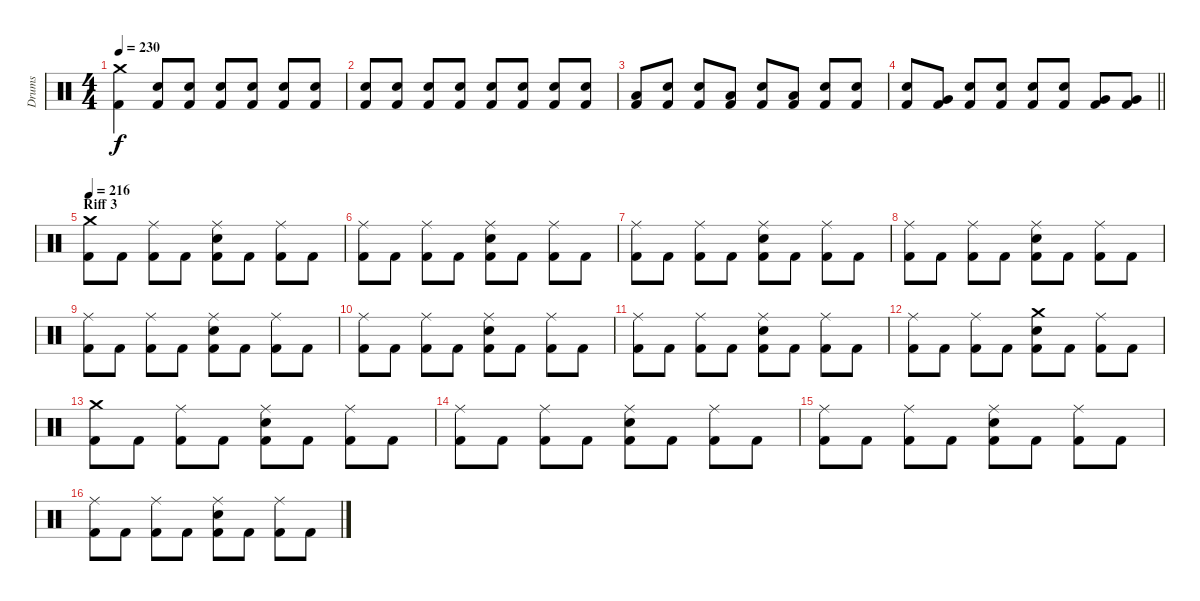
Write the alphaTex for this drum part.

\track ("Drums" "Drums") {instrument percussion}
\staff {score}
\articulation defaults
\ts (4 4)
\tempo 230
\clef neutral
\ks c
("Crash medium (hit)" "Kick (hit) 2").4{dy f} ("Electric Snare (hit)" "Kick (hit) 2").8 ("Electric Snare (hit)" "Kick (hit) 2").8 ("Electric Snare (hit)" "Kick (hit) 2").8 ("Electric Snare (hit)" "Kick (hit) 2").8 ("Electric Snare (hit)" "Kick (hit) 2").8 ("Electric Snare (hit)" "Kick (hit) 2").8 |
("Electric Snare (hit)" "Kick (hit) 2").8 ("Electric Snare (hit)" "Kick (hit) 2").8 ("Electric Snare (hit)" "Kick (hit) 2").8 ("Electric Snare (hit)" "Kick (hit) 2").8 ("Electric Snare (hit)" "Kick (hit) 2").8 ("Electric Snare (hit)" "Kick (hit) 2").8 ("Electric Snare (hit)" "Kick (hit) 2").8 ("Electric Snare (hit)" "Kick (hit) 2").8 |
("Kick (hit) 2" "Low Tom (hit)").8 ("Kick (hit) 2" "Electric Snare (hit)").8 ("Kick (hit) 2" "Electric Snare (hit)").8 ("Kick (hit) 2" "Low Tom (hit)").8 ("Kick (hit) 2" "Electric Snare (hit)").8 ("Kick (hit) 2" "Low Tom (hit)").8 ("Kick (hit) 2" "Electric Snare (hit)").8 ("Kick (hit) 2" "Electric Snare (hit)").8 |
\barLineRight lightlight
("Electric Snare (hit)" "Kick (hit) 2").8 ("Very Low Tom (hit)" "Kick (hit) 2").8 ("Electric Snare (hit)" "Kick (hit) 2").8 ("Electric Snare (hit)" "Kick (hit) 2").8 ("Electric Snare (hit)" "Kick (hit) 2").8 ("Electric Snare (hit)" "Kick (hit) 2").8 ("Very Low Tom (hit)" "Kick (hit) 2").8 ("Very Low Tom (hit)" "Kick (hit) 2").8 |
\section ("" "Riff 3")
\tempo 216
("Kick (hit) 2" "Crash medium (hit)").8 "Kick (hit) 2".8 ("Kick (hit) 2" "Ride (middle)").8 "Kick (hit) 2".8 ("Kick (hit) 2" "Electric Snare (hit)" "Ride (middle)").8 "Kick (hit) 2".8 ("Kick (hit) 2" "Ride (middle)").8 "Kick (hit) 2".8 |
("Kick (hit) 2" "Ride (middle)").8 "Kick (hit) 2".8 ("Kick (hit) 2" "Ride (middle)").8 "Kick (hit) 2".8 ("Kick (hit) 2" "Electric Snare (hit)" "Ride (middle)").8 "Kick (hit) 2".8 ("Kick (hit) 2" "Ride (middle)").8 "Kick (hit) 2".8 |
("Kick (hit) 2" "Ride (middle)").8 "Kick (hit) 2".8 ("Kick (hit) 2" "Ride (middle)").8 "Kick (hit) 2".8 ("Kick (hit) 2" "Electric Snare (hit)" "Ride (middle)").8 "Kick (hit) 2".8 ("Kick (hit) 2" "Ride (middle)").8 "Kick (hit) 2".8 |
("Kick (hit) 2" "Ride (middle)").8 "Kick (hit) 2".8 ("Kick (hit) 2" "Ride (middle)").8 "Kick (hit) 2".8 ("Kick (hit) 2" "Electric Snare (hit)" "Ride (middle)").8 "Kick (hit) 2".8 ("Kick (hit) 2" "Ride (middle)").8 "Kick (hit) 2".8 |
("Kick (hit) 2" "Ride (middle)").8 "Kick (hit) 2".8 ("Kick (hit) 2" "Ride (middle)").8 "Kick (hit) 2".8 ("Kick (hit) 2" "Electric Snare (hit)" "Ride (middle)").8 "Kick (hit) 2".8 ("Kick (hit) 2" "Ride (middle)").8 "Kick (hit) 2".8 |
("Kick (hit) 2" "Ride (middle)").8 "Kick (hit) 2".8 ("Kick (hit) 2" "Ride (middle)").8 "Kick (hit) 2".8 ("Kick (hit) 2" "Electric Snare (hit)" "Ride (middle)").8 "Kick (hit) 2".8 ("Kick (hit) 2" "Ride (middle)").8 "Kick (hit) 2".8 |
("Kick (hit) 2" "Ride (middle)").8 "Kick (hit) 2".8 ("Kick (hit) 2" "Ride (middle)").8 "Kick (hit) 2".8 ("Kick (hit) 2" "Electric Snare (hit)" "Ride (middle)").8 "Kick (hit) 2".8 ("Kick (hit) 2" "Ride (middle)").8 "Kick (hit) 2".8 |
("Kick (hit) 2" "Ride (middle)").8 "Kick (hit) 2".8 ("Kick (hit) 2" "Ride (middle)").8 "Kick (hit) 2".8 ("Kick (hit) 2" "Electric Snare (hit)" "Crash medium (hit)").8 "Kick (hit) 2".8 ("Kick (hit) 2" "Ride (middle)").8 "Kick (hit) 2".8 |
("Kick (hit) 2" "Crash medium (hit)").8 "Kick (hit) 2".8 ("Kick (hit) 2" "Ride (middle)").8 "Kick (hit) 2".8 ("Kick (hit) 2" "Electric Snare (hit)" "Ride (middle)").8 "Kick (hit) 2".8 ("Kick (hit) 2" "Ride (middle)").8 "Kick (hit) 2".8 |
("Kick (hit) 2" "Ride (middle)").8 "Kick (hit) 2".8 ("Kick (hit) 2" "Ride (middle)").8 "Kick (hit) 2".8 ("Kick (hit) 2" "Electric Snare (hit)" "Ride (middle)").8 "Kick (hit) 2".8 ("Kick (hit) 2" "Ride (middle)").8 "Kick (hit) 2".8 |
("Kick (hit) 2" "Ride (middle)").8 "Kick (hit) 2".8 ("Kick (hit) 2" "Ride (middle)").8 "Kick (hit) 2".8 ("Kick (hit) 2" "Electric Snare (hit)" "Ride (middle)").8 "Kick (hit) 2".8 ("Kick (hit) 2" "Ride (middle)").8 "Kick (hit) 2".8 |
("Kick (hit) 2" "Ride (middle)").8 "Kick (hit) 2".8 ("Kick (hit) 2" "Ride (middle)").8 "Kick (hit) 2".8 ("Kick (hit) 2" "Electric Snare (hit)" "Ride (middle)").8 "Kick (hit) 2".8 ("Kick (hit) 2" "Ride (middle)").8 "Kick (hit) 2".8
